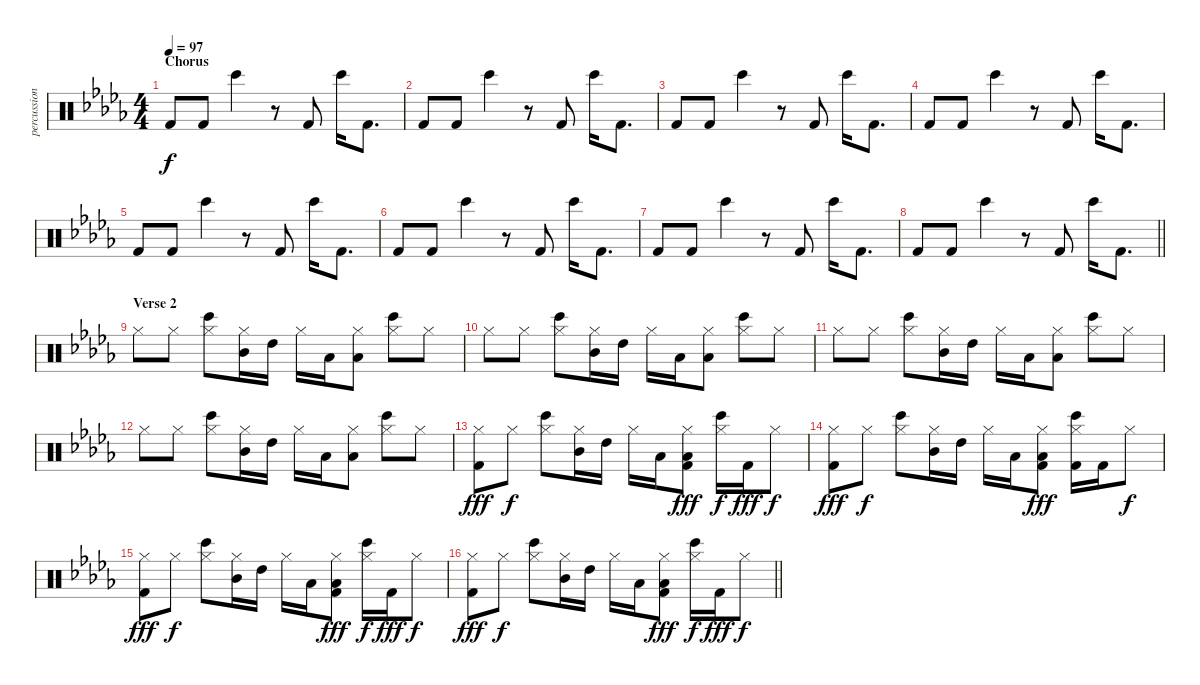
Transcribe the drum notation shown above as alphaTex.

\track ("percussion" "percussion") {instrument percussion}
\staff {score}
\articulation defaults
\ts (4 4)
\section ("" "Chorus")
\tempo 97
\clef neutral
\ks bbminor "Kick (hit) 2".8{dy f} "Kick (hit) 2".8 "Bongo High (hit)".4
r.8 "Kick (hit) 2".8 "Bongo High (hit)".16 "Kick (hit) 2".8{d} |
"Kick (hit) 2".8 "Kick (hit) 2".8 "Bongo High (hit)".4 r.8 "Kick (hit) 2".8 "Bongo High (hit)".16 "Kick (hit) 2".8{d} |
"Kick (hit) 2".8 "Kick (hit) 2".8 "Bongo High (hit)".4 r.8 "Kick (hit) 2".8 "Bongo High (hit)".16 "Kick (hit) 2".8{d} |
"Kick (hit) 2".8 "Kick (hit) 2".8 "Bongo High (hit)".4 r.8 "Kick (hit) 2".8 "Bongo High (hit)".16 "Kick (hit) 2".8{d} |
"Kick (hit) 2".8 "Kick (hit) 2".8 "Bongo High (hit)".4 r.8 "Kick (hit) 2".8 "Bongo High (hit)".16 "Kick (hit) 2".8{d} |
"Kick (hit) 2".8 "Kick (hit) 2".8 "Bongo High (hit)".4 r.8 "Kick (hit) 2".8 "Bongo High (hit)".16 "Kick (hit) 2".8{d} |
"Kick (hit) 2".8 "Kick (hit) 2".8 "Bongo High (hit)".4 r.8 "Kick (hit) 2".8 "Bongo High (hit)".16 "Kick (hit) 2".8{d} |
\barLineRight lightlight "Kick (hit) 2".8 "Kick (hit) 2".8 "Bongo High (hit)".4
r.8 "Kick (hit) 2".8 "Bongo High (hit)".16 "Kick (hit) 2".8{d} |
\section ("" "Verse 2")
"Hi-Hat (closed)".8 "Hi-Hat (closed)".8 ("Bongo High (hit)" "Hi-Hat (closed)").8 ("Mid Tom (hit)" "Hi-Hat (closed)").16 "High Tom (hit)".16 "Hi-Hat (closed)".16 "Low Tom (hit)".16 ("Low Tom (hit)" "Hi-Hat (closed)").8 ("Bongo High (hit)" "Hi-Hat (closed)").8 "Hi-Hat (closed)".8 |
"Hi-Hat (closed)".8 "Hi-Hat (closed)".8 ("Bongo High (hit)" "Hi-Hat (closed)").8 ("Mid Tom (hit)" "Hi-Hat (closed)").16 "High Tom (hit)".16 "Hi-Hat (closed)".16 "Low Tom (hit)".16 ("Low Tom (hit)" "Hi-Hat (closed)").8 ("Bongo High (hit)" "Hi-Hat (closed)").8 "Hi-Hat (closed)".8 |
"Hi-Hat (closed)".8 "Hi-Hat (closed)".8 ("Bongo High (hit)" "Hi-Hat (closed)").8 ("Mid Tom (hit)" "Hi-Hat (closed)").16 "High Tom (hit)".16 "Hi-Hat (closed)".16 "Low Tom (hit)".16 ("Low Tom (hit)" "Hi-Hat (closed)").8 ("Bongo High (hit)" "Hi-Hat (closed)").8 "Hi-Hat (closed)".8 |
"Hi-Hat (closed)".8 "Hi-Hat (closed)".8 ("Bongo High (hit)" "Hi-Hat (closed)").8 ("Mid Tom (hit)" "Hi-Hat (closed)").16 "High Tom (hit)".16 "Hi-Hat (closed)".16 "Low Tom (hit)".16 ("Low Tom (hit)" "Hi-Hat (closed)").8 ("Bongo High (hit)" "Hi-Hat (closed)").8 "Hi-Hat (closed)".8 |
("Hi-Hat (closed)" "Kick (hit) 2").8{dy fff} "Hi-Hat (closed)".8{dy f} ("Bongo High (hit)" "Hi-Hat (closed)").8 ("Mid Tom (hit)" "Hi-Hat (closed)").16 "High Tom (hit)".16 "Hi-Hat (closed)".16 "Low Tom (hit)".16 ("Low Tom (hit)" "Hi-Hat (closed)" "Kick (hit) 2").8{dy fff} ("Bongo High (hit)" "Hi-Hat (closed)").16{dy f} "Kick (hit) 2".16{dy fff} "Hi-Hat (closed)".8{dy f} |
("Hi-Hat (closed)" "Kick (hit) 2").8{dy fff} "Hi-Hat (closed)".8{dy f} ("Bongo High (hit)" "Hi-Hat (closed)").8 ("Mid Tom (hit)" "Hi-Hat (closed)").16 "High Tom (hit)".16 "Hi-Hat (closed)".16 "Low Tom (hit)".16 ("Low Tom (hit)" "Hi-Hat (closed)" "Kick (hit) 2").8{dy fff} ("Bongo High (hit)" "Hi-Hat (closed)" "Kick (hit) 2").16 "Kick (hit) 2".16 "Hi-Hat (closed)".8{dy f} |
("Hi-Hat (closed)" "Kick (hit) 2").8{dy fff} "Hi-Hat (closed)".8{dy f} ("Bongo High (hit)" "Hi-Hat (closed)").8 ("Mid Tom (hit)" "Hi-Hat (closed)").16 "High Tom (hit)".16 "Hi-Hat (closed)".16 "Low Tom (hit)".16 ("Low Tom (hit)" "Hi-Hat (closed)" "Kick (hit) 2").8{dy fff} ("Bongo High (hit)" "Hi-Hat (closed)").16{dy f} "Kick (hit) 2".16{dy fff} "Hi-Hat (closed)".8{dy f} |
\barLineRight lightlight
("Hi-Hat (closed)" "Kick (hit) 2").8{dy fff} "Hi-Hat (closed)".8{dy f} ("Bongo High (hit)" "Hi-Hat (closed)").8 ("Mid Tom (hit)" "Hi-Hat (closed)").16 "High Tom (hit)".16 "Hi-Hat (closed)".16 "Low Tom (hit)".16 ("Low Tom (hit)" "Hi-Hat (closed)" "Kick (hit) 2").8{dy fff} ("Bongo High (hit)" "Hi-Hat (closed)").16{dy f} "Kick (hit) 2".16{dy fff} "Hi-Hat (closed)".8{dy f}
